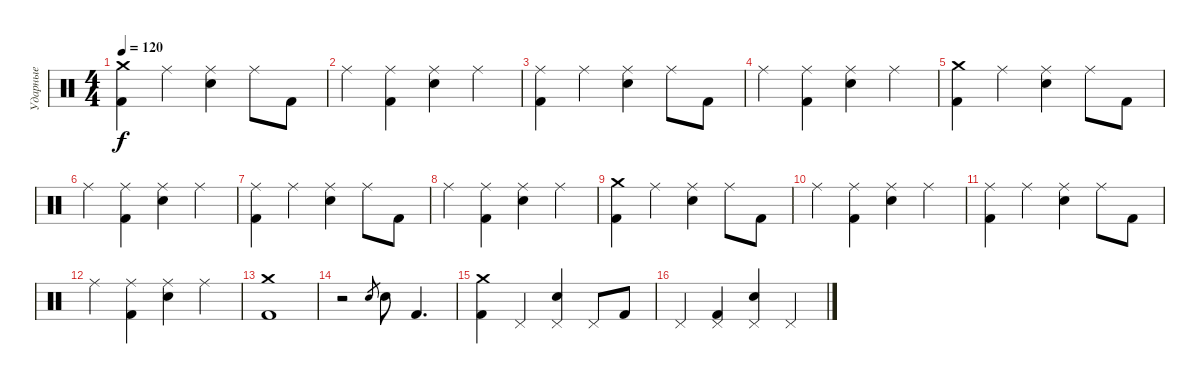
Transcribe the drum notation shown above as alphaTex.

\track ("Ударные" "Ударные") {instrument percussion}
\staff {score}
\articulation defaults
\ts (4 4)
\tempo 120
\clef neutral
\ks c
("Crash medium (hit)" "Kick (hit) 2").4{dy f} "Ride (middle)".4 ("Ride (middle)" "Electric Snare (hit)").4 "Ride (middle)".8 "Kick (hit) 2".8 |
"Ride (middle)".4 ("Ride (middle)" "Kick (hit) 2").4 ("Ride (middle)" "Electric Snare (hit)").4 "Ride (middle)".4 |
("Ride (middle)" "Kick (hit) 2").4 "Ride (middle)".4 ("Ride (middle)" "Electric Snare (hit)").4 "Ride (middle)".8 "Kick (hit) 2".8 |
"Ride (middle)".4 ("Ride (middle)" "Kick (hit) 2").4 ("Ride (middle)" "Electric Snare (hit)").4 "Ride (middle)".4 |
("Crash medium (hit)" "Kick (hit) 2").4 "Ride (middle)".4 ("Ride (middle)" "Electric Snare (hit)").4 "Ride (middle)".8 "Kick (hit) 2".8 |
"Ride (middle)".4 ("Ride (middle)" "Kick (hit) 2").4 ("Ride (middle)" "Electric Snare (hit)").4 "Ride (middle)".4 |
("Ride (middle)" "Kick (hit) 2").4 "Ride (middle)".4 ("Ride (middle)" "Electric Snare (hit)").4 "Ride (middle)".8 "Kick (hit) 2".8 |
"Ride (middle)".4 ("Ride (middle)" "Kick (hit) 2").4 ("Ride (middle)" "Electric Snare (hit)").4 "Ride (middle)".4 |
("Crash medium (hit)" "Kick (hit) 2").4 "Ride (middle)".4 ("Ride (middle)" "Electric Snare (hit)").4 "Ride (middle)".8 "Kick (hit) 2".8 |
"Ride (middle)".4 ("Ride (middle)" "Kick (hit) 2").4 ("Ride (middle)" "Electric Snare (hit)").4 "Ride (middle)".4 |
("Ride (middle)" "Kick (hit) 2").4 "Ride (middle)".4 ("Ride (middle)" "Electric Snare (hit)").4 "Ride (middle)".8 "Kick (hit) 2".8 |
"Ride (middle)".4 ("Ride (middle)" "Kick (hit) 2").4 ("Ride (middle)" "Electric Snare (hit)").4 "Ride (middle)".4 |
("Crash medium (hit)" "Kick (hit) 2").1 |
r.2 "Electric Snare (hit)".8{gr} "Electric Snare (hit)".8 "Kick (hit) 2".4{d} |
("Crash medium (hit)" "Kick (hit) 2").4 "Pedal Hi-Hat (hit)".4 ("Pedal Hi-Hat (hit)" "Electric Snare (hit)").4 "Pedal Hi-Hat (hit)".8 "Kick (hit) 2".8 |
"Pedal Hi-Hat (hit)".4 ("Pedal Hi-Hat (hit)" "Kick (hit) 2").4 ("Pedal Hi-Hat (hit)" "Electric Snare (hit)").4 "Pedal Hi-Hat (hit)".4
